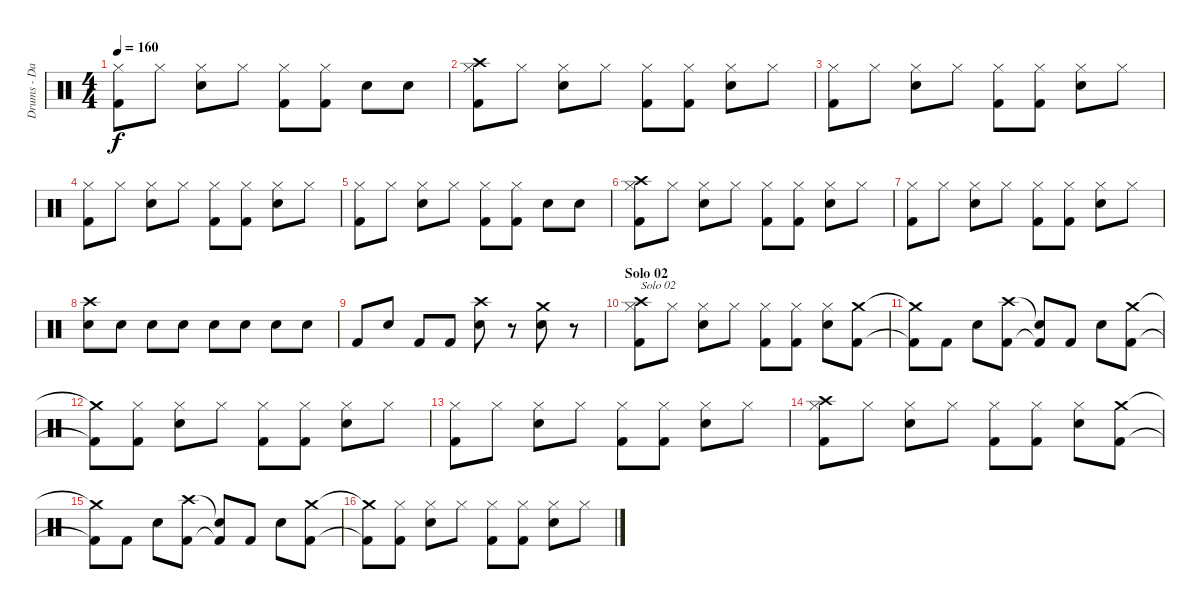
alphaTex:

\track ("Drums - Daniel Zimmermann" "Drums - Da") {instrument percussion}
\staff {score}
\articulation defaults
\ts (4 4)
\tempo 160
\clef neutral
\ks c
("Hi-Hat (closed)" "Kick (hit) 2").8{dy f} "Hi-Hat (closed)".8 ("Hi-Hat (closed)" "Snare (hit) 2").8 "Hi-Hat (closed)".8 ("Hi-Hat (closed)" "Kick (hit) 2").8 ("Hi-Hat (closed)" "Kick (hit) 2").8 "Snare (hit) 2".8 "Snare (hit) 2".8 |
("Hi-Hat (closed)" "Kick (hit) 2" "Crash high (hit)").8 "Hi-Hat (closed)".8 ("Hi-Hat (closed)" "Snare (hit) 2").8 "Hi-Hat (closed)".8 ("Hi-Hat (closed)" "Kick (hit) 2").8 ("Hi-Hat (closed)" "Kick (hit) 2").8 ("Hi-Hat (closed)" "Snare (hit) 2").8 "Hi-Hat (closed)".8 |
("Hi-Hat (closed)" "Kick (hit) 2").8 "Hi-Hat (closed)".8 ("Hi-Hat (closed)" "Snare (hit) 2").8 "Hi-Hat (closed)".8 ("Hi-Hat (closed)" "Kick (hit) 2").8 ("Hi-Hat (closed)" "Kick (hit) 2").8 ("Hi-Hat (closed)" "Snare (hit) 2").8 "Hi-Hat (closed)".8 |
("Hi-Hat (closed)" "Kick (hit) 2").8 "Hi-Hat (closed)".8 ("Hi-Hat (closed)" "Snare (hit) 2").8 "Hi-Hat (closed)".8 ("Hi-Hat (closed)" "Kick (hit) 2").8 ("Hi-Hat (closed)" "Kick (hit) 2").8 ("Hi-Hat (closed)" "Snare (hit) 2").8 "Hi-Hat (closed)".8 |
("Hi-Hat (closed)" "Kick (hit) 2").8 "Hi-Hat (closed)".8 ("Hi-Hat (closed)" "Snare (hit) 2").8 "Hi-Hat (closed)".8 ("Hi-Hat (closed)" "Kick (hit) 2").8 ("Hi-Hat (closed)" "Kick (hit) 2").8 "Snare (hit) 2".8 "Snare (hit) 2".8 |
("Hi-Hat (closed)" "Kick (hit) 2" "Crash high (hit)").8 "Hi-Hat (closed)".8 ("Hi-Hat (closed)" "Snare (hit) 2").8 "Hi-Hat (closed)".8 ("Hi-Hat (closed)" "Kick (hit) 2").8 ("Hi-Hat (closed)" "Kick (hit) 2").8 ("Hi-Hat (closed)" "Snare (hit) 2").8 "Hi-Hat (closed)".8 |
("Hi-Hat (closed)" "Kick (hit) 2").8 "Hi-Hat (closed)".8 ("Hi-Hat (closed)" "Snare (hit) 2").8 "Hi-Hat (closed)".8 ("Hi-Hat (closed)" "Kick (hit) 2").8 ("Hi-Hat (closed)" "Kick (hit) 2").8 ("Hi-Hat (closed)" "Snare (hit) 2").8 "Hi-Hat (closed)".8 |
("Snare (hit) 2" "Crash high (hit)").8 "Snare (hit) 2".8 "Snare (hit) 2".8 "Snare (hit) 2".8 "Snare (hit) 2".8 "Snare (hit) 2".8 "Snare (hit) 2".8 "Snare (hit) 2".8 |
"Kick (hit) 2".8 "Snare (hit) 2".8 "Kick (hit) 2".8 "Kick (hit) 2".8 ("Snare (hit) 2" "Crash high (hit)").8 r.8 ("Snare (hit) 2" "Crash medium (hit)").8 r.8 |
\section ("" "Solo 02")
("Hi-Hat (closed)" "Kick (hit) 2" "Crash high (hit)").8{txt "Solo 02"} "Hi-Hat (closed)".8 ("Hi-Hat (closed)" "Snare (hit) 2").8 "Hi-Hat (closed)".8 ("Hi-Hat (closed)" "Kick (hit) 2").8 ("Hi-Hat (closed)" "Kick (hit) 2").8 ("Hi-Hat (closed)" "Snare (hit) 2").8 ("Kick (hit) 2" "Crash medium (hit)").8 |
("Kick (hit) 2"{t} "Crash medium (hit)"{t}).8 "Kick (hit) 2".8 "Snare (hit) 2".8 ("Kick (hit) 2" "Crash high (hit)").8 ("Kick (hit) 2"{t} "Snare (hit)"{t}).8 "Kick (hit) 2".8 "Snare (hit) 2".8 ("Kick (hit) 2" "Crash medium (hit)").8 |
("Kick (hit) 2"{t} "Crash medium (hit)"{t}).8 ("Hi-Hat (closed)" "Kick (hit) 2").8 ("Hi-Hat (closed)" "Snare (hit) 2").8 "Hi-Hat (closed)".8 ("Hi-Hat (closed)" "Kick (hit) 2").8 ("Hi-Hat (closed)" "Kick (hit) 2").8 ("Hi-Hat (closed)" "Snare (hit) 2").8 "Hi-Hat (closed)".8 |
("Hi-Hat (closed)" "Kick (hit) 2").8 "Hi-Hat (closed)".8 ("Hi-Hat (closed)" "Snare (hit) 2").8 "Hi-Hat (closed)".8 ("Hi-Hat (closed)" "Kick (hit) 2").8 ("Hi-Hat (closed)" "Kick (hit) 2").8 ("Hi-Hat (closed)" "Snare (hit) 2").8 "Hi-Hat (closed)".8 |
("Hi-Hat (closed)" "Kick (hit) 2" "Crash high (hit)").8 "Hi-Hat (closed)".8 ("Hi-Hat (closed)" "Snare (hit) 2").8 "Hi-Hat (closed)".8 ("Hi-Hat (closed)" "Kick (hit) 2").8 ("Hi-Hat (closed)" "Kick (hit) 2").8 ("Hi-Hat (closed)" "Snare (hit) 2").8 ("Kick (hit) 2" "Crash medium (hit)").8 |
("Kick (hit) 2"{t} "Crash medium (hit)"{t}).8 "Kick (hit) 2".8 "Snare (hit) 2".8 ("Kick (hit) 2" "Crash high (hit)").8 ("Kick (hit) 2"{t} "Snare (hit)"{t}).8 "Kick (hit) 2".8 "Snare (hit) 2".8 ("Kick (hit) 2" "Crash medium (hit)").8 |
("Kick (hit) 2"{t} "Crash medium (hit)"{t}).8 ("Hi-Hat (closed)" "Kick (hit) 2").8 ("Hi-Hat (closed)" "Snare (hit) 2").8 "Hi-Hat (closed)".8 ("Hi-Hat (closed)" "Kick (hit) 2").8 ("Hi-Hat (closed)" "Kick (hit) 2").8 ("Hi-Hat (closed)" "Snare (hit) 2").8 "Hi-Hat (closed)".8
